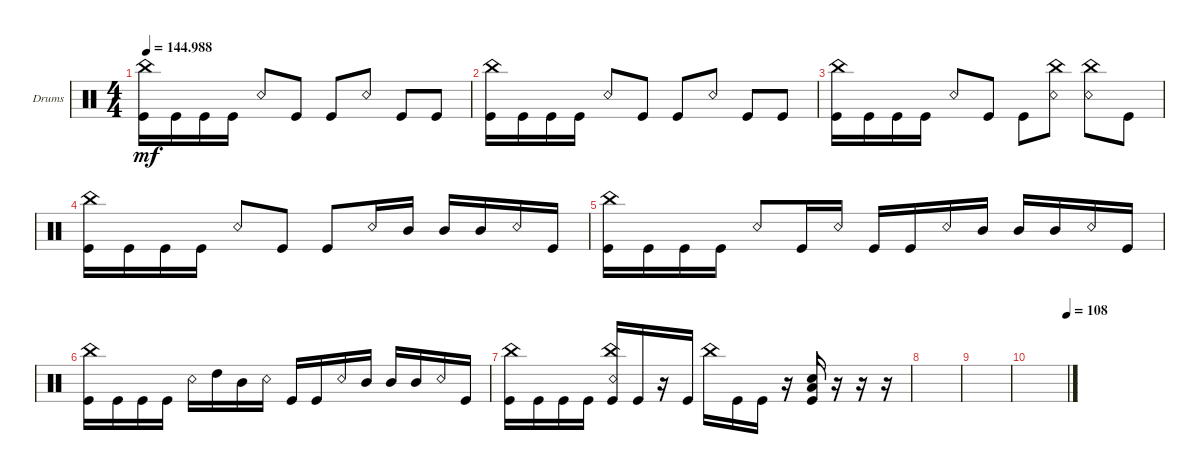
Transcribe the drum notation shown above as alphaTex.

\defaultSystemsLayout 4
\bracketExtendMode groupsimilarinstruments
\firstSystemTrackNameOrientation horizontal
\otherSystemsTrackNameOrientation horizontal
\track ("Drumkit" "Drums") {instrument percussion}
\staff {score}
\articulation defaults
\ts (4 4)
\tempo
144.988
\accidentals auto
\clef neutral
\ottava regular
\simile none
\ks c
("Kick (hit)" "China (hit)").16{dy mf} "Kick (hit)".16 "Kick (hit)".16 "Kick (hit)".16 "Snare (rim shot)".8 "Kick (hit)".8 "Kick (hit)".8 "Snare (rim shot)".8 "Kick (hit)".8 "Kick (hit)".8 |
("Kick (hit)" "China (hit)").16 "Kick (hit)".16 "Kick (hit)".16 "Kick (hit)".16 "Snare (rim shot)".8 "Kick (hit)".8 "Kick (hit)".8 "Snare (rim shot)".8 "Kick (hit)".8 "Kick (hit)".8 |
("Kick (hit)" "China (hit)").16 "Kick (hit)".16 "Kick (hit)".16 "Kick (hit)".16 "Snare (rim shot)".8 "Kick (hit)".8 "Kick (hit)".8 ("Snare (rim shot)" "China (hit)").8 ("China (hit)" "Snare (rim shot)").8 "Kick (hit)".8 |
("Kick (hit)" "China (hit)").16 "Kick (hit)".16 "Kick (hit)".16 "Kick (hit)".16 "Snare (rim shot)".8 "Kick (hit)".8 "Kick (hit)".8 "Snare (rim shot)".16 "Mid Tom (hit)".16 "Mid Tom (hit)".16 "Mid Tom (hit)".16 "Snare (rim shot)".16 "Kick (hit)".16 |
("Kick (hit)" "China (hit)").16 "Kick (hit)".16 "Kick (hit)".16 "Kick (hit)".16 "Snare (rim shot)".8 "Kick (hit)".16 "Snare (rim shot)".16 "Kick (hit)".16 "Kick (hit)".16 "Snare (rim shot)".16 "Mid Tom (hit)".16 "Mid Tom (hit)".16 "Mid Tom (hit)".16 "Snare (rim shot)".16 "Kick (hit)".16 |
("Kick (hit)" "China (hit)").16 "Kick (hit)".16 "Kick (hit)".16 "Kick (hit)".16 "Snare (rim shot)".16 "High Tom (hit)".16 "Mid Tom (hit)".16 "Snare (rim shot)".16 "Kick (hit)".16 "Kick (hit)".16 "Snare (rim shot)".16 "Mid Tom (hit)".16 "Mid Tom (hit)".16 "Mid Tom (hit)".16 "Snare (rim shot)".16 "Kick (hit)".16 |
("Kick (hit)" "China (hit)").16 "Kick (hit)".16 "Kick (hit)".16 "Kick (hit)".16 ("Kick (hit)" "China (hit)" "Snare (rim shot)").16 "Kick (hit)".16 r.16 "Kick (hit)".16 "China (hit)".16 "Kick (hit)".16 "Kick (hit)".16 r.16 ("Kick (hit)" "Low Tom (hit)" "Snare (hit) 2").16 r.16 r.16 r.16 |
|
|
\tempo (108 1)
